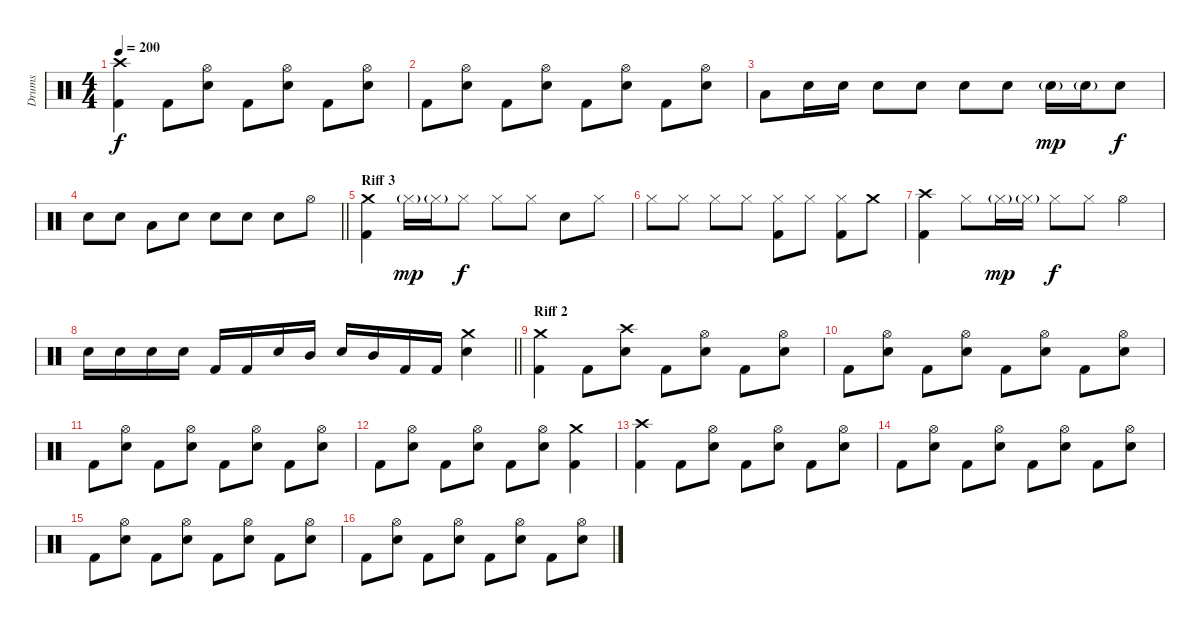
\track ("Drums" "Drums") {instrument percussion}
\staff {score}
\articulation defaults
\ts (4 4)
\tempo 200
\clef neutral
\ks c
("Crash high (hit)" "Kick (hit) 2").4{dy f} "Kick (hit) 2".8 ("Hi-Hat (open)" "Electric Snare (hit)").8 "Kick (hit) 2".8 ("Hi-Hat (open)" "Electric Snare (hit)").8 "Kick (hit) 2".8 ("Hi-Hat (open)" "Electric Snare (hit)").8 |
"Kick (hit) 2".8 ("Hi-Hat (open)" "Electric Snare (hit)").8 "Kick (hit) 2".8 ("Hi-Hat (open)" "Electric Snare (hit)").8 "Kick (hit) 2".8 ("Hi-Hat (open)" "Electric Snare (hit)").8 "Kick (hit) 2".8 ("Hi-Hat (open)" "Electric Snare (hit)").8 |
"Low Tom (hit)".8 "Electric Snare (hit)".16 "Electric Snare (hit)".16 "Electric Snare (hit)".8 "Electric Snare (hit)".8 "Electric Snare (hit)".8 "Electric Snare (hit)".8 "Electric Snare (hit)"{g}.16{dy mp} "Electric Snare (hit)"{g}.16 "Electric Snare (hit)".8{dy f} |
\barLineRight lightlight "Electric Snare (hit)".8 "Electric Snare (hit)".8 "Low Tom (hit)".8 "Electric Snare (hit)".8 "Electric Snare (hit)".8 "Electric Snare (hit)".8 "Electric Snare (hit)".8 "Hi-Hat (open)".8
|
\section ("" "Riff 3")
("Crash medium (hit)" "Kick (hit) 2").4 "Hi-Hat (closed)"{g}.16{dy mp} "Hi-Hat (closed)"{g}.16 "Hi-Hat (closed)".8{dy f} "Hi-Hat (closed)".8 "Hi-Hat (closed)".8 "Electric Snare (hit)".8 "Hi-Hat (closed)".8 |
"Hi-Hat (closed)".8 "Hi-Hat (closed)".8 "Hi-Hat (closed)".8 "Hi-Hat (closed)".8 ("Hi-Hat (closed)" "Kick (hit) 2").8 "Hi-Hat (closed)".8 ("Kick (hit) 2" "Hi-Hat (closed)").8 "Crash medium (hit)".8 |
("Kick (hit) 2" "Crash high (hit)").4 "Hi-Hat (closed)".8 "Hi-Hat (closed)"{g}.16{dy mp} "Hi-Hat (closed)"{g}.16 "Hi-Hat (closed)".8{dy f} "Hi-Hat (closed)".8 "Hi-Hat (open)".4 |
\barLineRight lightlight "Electric Snare (hit)".16 "Electric Snare (hit)".16 "Electric Snare (hit)".16 "Electric Snare (hit)".16 "Kick (hit) 2".16 "Kick (hit) 2".16 "Electric Snare (hit)".16 "Mid Tom (hit)".16 "Electric Snare (hit)".16 "Mid Tom (hit)".16 "Kick (hit) 2".16 "Kick (hit) 2".16
("Crash medium (hit)" "Electric Snare (hit)").4 |
\section ("" "Riff 2")
("Crash medium (hit)" "Kick (hit) 2").4 "Kick (hit) 2".8 ("Crash high (hit)" "Electric Snare (hit)").8 "Kick (hit) 2".8 ("Hi-Hat (open)" "Electric Snare (hit)").8 "Kick (hit) 2".8 ("Hi-Hat (open)" "Electric Snare (hit)").8 |
"Kick (hit) 2".8 ("Hi-Hat (open)" "Electric Snare (hit)").8 "Kick (hit) 2".8 ("Hi-Hat (open)" "Electric Snare (hit)").8 "Kick (hit) 2".8 ("Hi-Hat (open)" "Electric Snare (hit)").8 "Kick (hit) 2".8 ("Hi-Hat (open)" "Electric Snare (hit)").8 |
"Kick (hit) 2".8 ("Hi-Hat (open)" "Electric Snare (hit)").8 "Kick (hit) 2".8 ("Hi-Hat (open)" "Electric Snare (hit)").8 "Kick (hit) 2".8 ("Hi-Hat (open)" "Electric Snare (hit)").8 "Kick (hit) 2".8 ("Hi-Hat (open)" "Electric Snare (hit)").8 |
"Kick (hit) 2".8 ("Hi-Hat (open)" "Electric Snare (hit)").8 "Kick (hit) 2".8 ("Hi-Hat (open)" "Electric Snare (hit)").8 "Kick (hit) 2".8 ("Hi-Hat (open)" "Electric Snare (hit)").8 ("Kick (hit) 2" "Crash medium (hit)").4 |
("Crash high (hit)" "Kick (hit) 2").4 "Kick (hit) 2".8 ("Hi-Hat (open)" "Electric Snare (hit)").8 "Kick (hit) 2".8 ("Hi-Hat (open)" "Electric Snare (hit)").8 "Kick (hit) 2".8 ("Hi-Hat (open)" "Electric Snare (hit)").8 |
"Kick (hit) 2".8 ("Hi-Hat (open)" "Electric Snare (hit)").8 "Kick (hit) 2".8 ("Hi-Hat (open)" "Electric Snare (hit)").8 "Kick (hit) 2".8 ("Hi-Hat (open)" "Electric Snare (hit)").8 "Kick (hit) 2".8 ("Hi-Hat (open)" "Electric Snare (hit)").8 |
"Kick (hit) 2".8 ("Hi-Hat (open)" "Electric Snare (hit)").8 "Kick (hit) 2".8 ("Hi-Hat (open)" "Electric Snare (hit)").8 "Kick (hit) 2".8 ("Hi-Hat (open)" "Electric Snare (hit)").8 "Kick (hit) 2".8 ("Hi-Hat (open)" "Electric Snare (hit)").8 |
"Kick (hit) 2".8 ("Hi-Hat (open)" "Electric Snare (hit)").8 "Kick (hit) 2".8 ("Hi-Hat (open)" "Electric Snare (hit)").8 "Kick (hit) 2".8 ("Hi-Hat (open)" "Electric Snare (hit)").8 "Kick (hit) 2".8 ("Hi-Hat (open)" "Electric Snare (hit)").8
